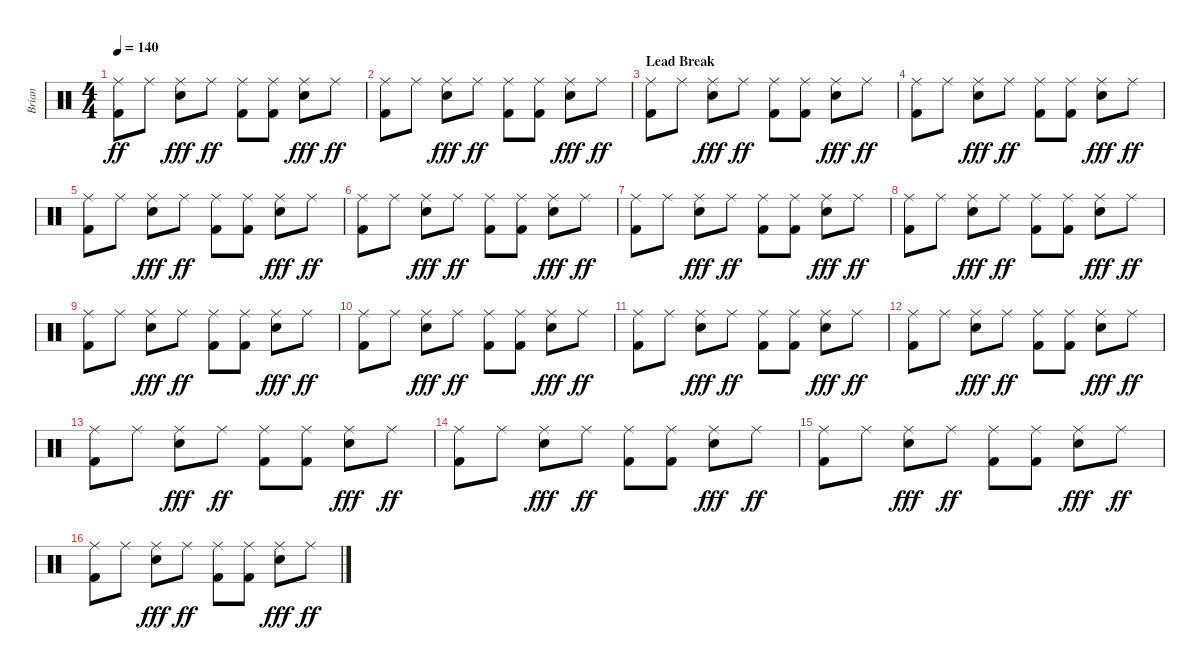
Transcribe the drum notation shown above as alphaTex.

\track ("Brian" "Brian") {instrument percussion}
\staff {score}
\articulation defaults
\ts (4 4)
\tempo 140
\clef neutral
\ks c
("Ride (middle)" "Kick (hit) 2").8{dy ff} "Ride (middle)".8 ("Ride (middle)" "Snare (hit) 2").8{dy fff} "Ride (middle)".8{dy ff} ("Ride (middle)" "Kick (hit) 2").8 ("Ride (middle)" "Kick (hit) 2").8 ("Ride (middle)" "Snare (hit) 2").8{dy fff} "Ride (middle)".8{dy ff} |
("Ride (middle)" "Kick (hit) 2").8 "Ride (middle)".8 ("Ride (middle)" "Snare (hit) 2").8{dy fff} "Ride (middle)".8{dy ff} ("Ride (middle)" "Kick (hit) 2").8 ("Ride (middle)" "Kick (hit) 2").8 ("Ride (middle)" "Snare (hit) 2").8{dy fff} "Ride (middle)".8{dy ff} |
\section ("" "Lead Break")
("Ride (middle)" "Kick (hit) 2").8 "Ride (middle)".8 ("Ride (middle)" "Snare (hit) 2").8{dy fff} "Ride (middle)".8{dy ff} ("Ride (middle)" "Kick (hit) 2").8 ("Ride (middle)" "Kick (hit) 2").8 ("Ride (middle)" "Snare (hit) 2").8{dy fff} "Ride (middle)".8{dy ff} |
("Ride (middle)" "Kick (hit) 2").8 "Ride (middle)".8 ("Ride (middle)" "Snare (hit) 2").8{dy fff} "Ride (middle)".8{dy ff} ("Ride (middle)" "Kick (hit) 2").8 ("Ride (middle)" "Kick (hit) 2").8 ("Ride (middle)" "Snare (hit) 2").8{dy fff} "Ride (middle)".8{dy ff} |
("Ride (middle)" "Kick (hit) 2").8 "Ride (middle)".8 ("Ride (middle)" "Snare (hit) 2").8{dy fff} "Ride (middle)".8{dy ff} ("Ride (middle)" "Kick (hit) 2").8 ("Ride (middle)" "Kick (hit) 2").8 ("Ride (middle)" "Snare (hit) 2").8{dy fff} "Ride (middle)".8{dy ff} |
("Ride (middle)" "Kick (hit) 2").8 "Ride (middle)".8 ("Ride (middle)" "Snare (hit) 2").8{dy fff} "Ride (middle)".8{dy ff} ("Ride (middle)" "Kick (hit) 2").8 ("Ride (middle)" "Kick (hit) 2").8 ("Ride (middle)" "Snare (hit) 2").8{dy fff} "Ride (middle)".8{dy ff} |
("Ride (middle)" "Kick (hit) 2").8 "Ride (middle)".8 ("Ride (middle)" "Snare (hit) 2").8{dy fff} "Ride (middle)".8{dy ff} ("Ride (middle)" "Kick (hit) 2").8 ("Ride (middle)" "Kick (hit) 2").8 ("Ride (middle)" "Snare (hit) 2").8{dy fff} "Ride (middle)".8{dy ff} |
("Ride (middle)" "Kick (hit) 2").8 "Ride (middle)".8 ("Ride (middle)" "Snare (hit) 2").8{dy fff} "Ride (middle)".8{dy ff} ("Ride (middle)" "Kick (hit) 2").8 ("Ride (middle)" "Kick (hit) 2").8 ("Ride (middle)" "Snare (hit) 2").8{dy fff} "Ride (middle)".8{dy ff} |
("Ride (middle)" "Kick (hit) 2").8 "Ride (middle)".8 ("Ride (middle)" "Snare (hit) 2").8{dy fff} "Ride (middle)".8{dy ff} ("Ride (middle)" "Kick (hit) 2").8 ("Ride (middle)" "Kick (hit) 2").8 ("Ride (middle)" "Snare (hit) 2").8{dy fff} "Ride (middle)".8{dy ff} |
("Ride (middle)" "Kick (hit) 2").8 "Ride (middle)".8 ("Ride (middle)" "Snare (hit) 2").8{dy fff} "Ride (middle)".8{dy ff} ("Ride (middle)" "Kick (hit) 2").8 ("Ride (middle)" "Kick (hit) 2").8 ("Ride (middle)" "Snare (hit) 2").8{dy fff} "Ride (middle)".8{dy ff} |
("Ride (middle)" "Kick (hit) 2").8 "Ride (middle)".8 ("Ride (middle)" "Snare (hit) 2").8{dy fff} "Ride (middle)".8{dy ff} ("Ride (middle)" "Kick (hit) 2").8 ("Ride (middle)" "Kick (hit) 2").8 ("Ride (middle)" "Snare (hit) 2").8{dy fff} "Ride (middle)".8{dy ff} |
("Ride (middle)" "Kick (hit) 2").8 "Ride (middle)".8 ("Ride (middle)" "Snare (hit) 2").8{dy fff} "Ride (middle)".8{dy ff} ("Ride (middle)" "Kick (hit) 2").8 ("Ride (middle)" "Kick (hit) 2").8 ("Ride (middle)" "Snare (hit) 2").8{dy fff} "Ride (middle)".8{dy ff} |
("Ride (middle)" "Kick (hit) 2").8 "Ride (middle)".8 ("Ride (middle)" "Snare (hit) 2").8{dy fff} "Ride (middle)".8{dy ff} ("Ride (middle)" "Kick (hit) 2").8 ("Ride (middle)" "Kick (hit) 2").8 ("Ride (middle)" "Snare (hit) 2").8{dy fff} "Ride (middle)".8{dy ff} |
("Ride (middle)" "Kick (hit) 2").8 "Ride (middle)".8 ("Ride (middle)" "Snare (hit) 2").8{dy fff} "Ride (middle)".8{dy ff} ("Ride (middle)" "Kick (hit) 2").8 ("Ride (middle)" "Kick (hit) 2").8 ("Ride (middle)" "Snare (hit) 2").8{dy fff} "Ride (middle)".8{dy ff} |
("Ride (middle)" "Kick (hit) 2").8 "Ride (middle)".8 ("Ride (middle)" "Snare (hit) 2").8{dy fff} "Ride (middle)".8{dy ff} ("Ride (middle)" "Kick (hit) 2").8 ("Ride (middle)" "Kick (hit) 2").8 ("Ride (middle)" "Snare (hit) 2").8{dy fff} "Ride (middle)".8{dy ff} |
("Ride (middle)" "Kick (hit) 2").8 "Ride (middle)".8 ("Ride (middle)" "Snare (hit) 2").8{dy fff} "Ride (middle)".8{dy ff} ("Ride (middle)" "Kick (hit) 2").8 ("Ride (middle)" "Kick (hit) 2").8 ("Ride (middle)" "Snare (hit) 2").8{dy fff} "Ride (middle)".8{dy ff}
